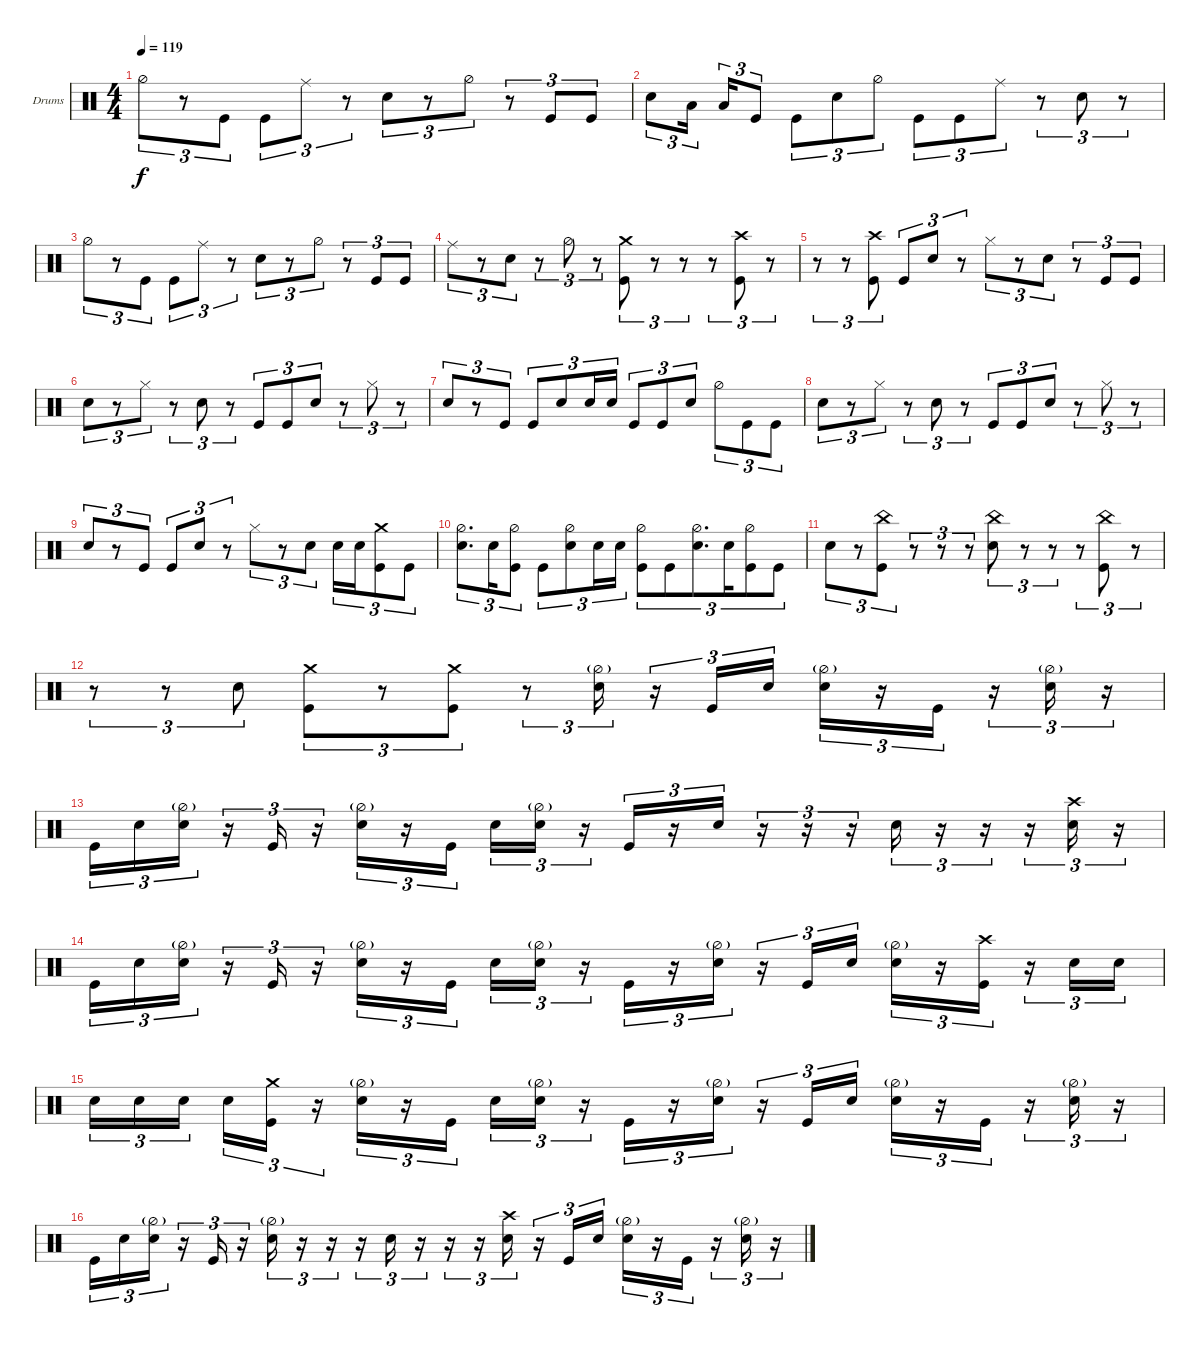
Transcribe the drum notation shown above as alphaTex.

\defaultSystemsLayout 4
\bracketExtendMode groupsimilarinstruments
\firstSystemTrackNameOrientation horizontal
\otherSystemsTrackNameOrientation horizontal
\track ("Drumkit" "Drums") {instrument percussion}
\staff {score}
\articulation defaults
\ts (4 4)
\tempo 119
\clef neutral
\ks c "Hi-Hat (half)".8{tu (3 2) dy f}
r.8{tu (3 2)} "Kick (hit)".8{tu (3 2)} "Kick (hit)".8{tu (3 2)} "Ride (middle)".8{tu (3 2)} r.8{tu (3 2)} "Snare (hit) 2".8{tu (3 2)} r.8{tu (3 2)} "Hi-Hat (half)".8{tu (3 2)} r.8{tu (3 2)} "Kick (hit)".8{tu (3 2)} "Kick (hit)".8{tu (3 2)} |
"Snare (hit) 2".8{tu (3 2)} "Low Tom (hit)".16{tu (3 2)} "Low Tom (hit)".16{tu (3 2)} "Kick (hit)".8{tu (3 2)} "Kick (hit)".8{tu (3 2)} "Snare (hit) 2".8{tu (3 2)} "Hi-Hat (half)".8{tu (3 2)} "Kick (hit)".8{tu (3 2)} "Kick (hit)".8{tu (3 2)} "Ride (middle)".8{tu (3 2)} r.8{tu (3 2)} "Snare (hit) 2".8{tu (3 2)} r.8{tu (3 2)} |
"Hi-Hat (half)".8{tu (3 2)} r.8{tu (3 2)} "Kick (hit)".8{tu (3 2)} "Kick (hit)".8{tu (3 2)} "Ride (middle)".8{tu (3 2)} r.8{tu (3 2)} "Snare (hit) 2".8{tu (3 2)} r.8{tu (3 2)} "Hi-Hat (half)".8{tu (3 2)} r.8{tu (3 2)} "Kick (hit)".8{tu (3 2)} "Kick (hit)".8{tu (3 2)} |
"Ride (middle)".8{tu (3 2)} r.8{tu (3 2)} "Snare (hit) 2".8{tu (3 2)} r.8{tu (3 2)} "Hi-Hat (half)".8{tu (3 2)} r.8{tu (3 2)} ("Kick (hit)" "Crash medium (hit)").8{tu (3 2)} r.8{tu (3 2)} r.8{tu (3 2)} r.8{tu (3 2)} ("Kick (hit)" "Crash high (hit)").8{tu (3 2)} r.8{tu (3 2)} |
r.8{tu (3 2)} r.8{tu (3 2)} ("Kick (hit)" "Crash high (hit)").8{tu (3 2)} "Kick (hit)".8{tu (3 2)} "Snare (hit) 2".8{tu (3 2)} r.8{tu (3 2)} "Hi-Hat (closed)".8{tu (3 2)} r.8{tu (3 2)} "Snare (hit) 2".8{tu (3 2)} r.8{tu (3 2)} "Kick (hit)".8{tu (3 2)} "Kick (hit)".8{tu (3 2)} |
"Snare (hit) 2".8{tu (3 2)} r.8{tu (3 2)} "Hi-Hat (closed)".8{tu (3 2)} r.8{tu (3 2)} "Snare (hit) 2".8{tu (3 2)} r.8{tu (3 2)} "Kick (hit)".8{tu (3 2)} "Kick (hit)".8{tu (3 2)} "Snare (hit) 2".8{tu (3 2)} r.8{tu (3 2)} "Hi-Hat (closed)".8{tu (3 2)} r.8{tu (3 2)} |
"Snare (hit) 2".8{tu (3 2)} r.8{tu (3 2)} "Kick (hit)".8{tu (3 2)} "Kick (hit)".8{tu (3 2)} "Snare (hit) 2".8{tu (3 2)} "Snare (hit) 2".16{tu (3 2)} "Snare (hit) 2".16{tu (3 2)} "Kick (hit)".8{tu (3 2)} "Kick (hit)".8{tu (3 2)} "Snare (hit) 2".8{tu (3 2)} "Hi-Hat (half)".8{tu (3 2)} "Kick (hit)".8{tu (3 2)} "Kick (hit)".8{tu (3 2)} |
"Snare (hit) 2".8{tu (3 2)} r.8{tu (3 2)} "Hi-Hat (closed)".8{tu (3 2)} r.8{tu (3 2)} "Snare (hit) 2".8{tu (3 2)} r.8{tu (3 2)} "Kick (hit)".8{tu (3 2)} "Kick (hit)".8{tu (3 2)} "Snare (hit) 2".8{tu (3 2)} r.8{tu (3 2)} "Hi-Hat (closed)".8{tu (3 2)} r.8{tu (3 2)} |
"Snare (hit) 2".8{tu (3 2)} r.8{tu (3 2)} "Kick (hit)".8{tu (3 2)} "Kick (hit)".8{tu (3 2)} "Snare (hit) 2".8{tu (3 2)} r.8{tu (3 2)} "Hi-Hat (closed)".8{tu (3 2)} r.8{tu (3 2)} "Snare (hit) 2".8{tu (3 2)} "Snare (hit) 2".16{tu (3 2)} "Snare (hit) 2".16{tu (3 2)} ("Kick (hit)" "Crash medium (hit)").8{tu (3 2)} "Kick (hit)".8{tu (3 2)} |
("Snare (hit) 2" "Hi-Hat (half)").8{d tu (3 2)} "Snare (hit) 2".16{tu (3 2)} ("Kick (hit)" "Hi-Hat (half)").8{tu (3 2)} "Kick (hit)".8{tu (3 2)} ("Snare (hit) 2" "Hi-Hat (half)").8{tu (3 2)} "Snare (hit) 2".16{tu (3 2)} "Snare (hit) 2".16{tu (3 2)} ("Kick (hit)" "Hi-Hat (half)").8{tu (3 2)} "Kick (hit)".8{tu (3 2)} ("Snare (hit) 2" "Hi-Hat (half)").8{d tu (3 2)} "Snare (hit) 2".16{tu (3 2)} ("Kick (hit)" "Hi-Hat (half)").8{tu (3 2)} "Kick (hit)".8{tu (3 2)} |
"Snare (hit) 2".8{tu (3 2)} r.8{tu (3 2)} ("Kick (hit)" "China (hit)").8{tu (3 2)} r.8{tu (3 2)} r.8{tu (3 2)} r.8{tu (3 2)} ("Snare (hit) 2" "China (hit)").8{tu (3 2)} r.8{tu (3 2)} r.8{tu (3 2)} r.8{tu (3 2)} ("Kick (hit)" "China (hit)").8{tu (3 2)} r.8{tu (3 2)} |
r.8{tu (3 2)} r.8{tu (3 2)} "Snare (hit) 2".8{tu (3 2)} ("Kick (hit)" "Crash medium (hit)").8{tu (3 2)} r.8{tu (3 2)} ("Kick (hit)" "Crash medium (hit)").8{tu (3 2)} r.8{tu (3 2)} ("Snare (hit) 2" "Hi-Hat (half)"{g}).16{tu (3 2)} r.16{tu (3 2)} "Kick (hit)".16{tu (3 2)} "Snare (hit) 2".16{tu (3 2)} ("Snare (hit) 2" "Hi-Hat (half)"{g}).16{tu (3 2)} r.16{tu (3 2)} "Kick (hit)".16{tu (3 2)} r.16{tu (3 2)} ("Snare (hit) 2" "Hi-Hat (half)"{g}).16{tu (3 2)} r.16{tu (3 2)} |
"Kick (hit)".16{tu (3 2)} "Snare (hit) 2".16{tu (3 2)} ("Snare (hit) 2" "Hi-Hat (half)"{g}).16{tu (3 2)} r.16{tu (3 2)} "Kick (hit)".16{tu (3 2)} r.16{tu (3 2)} ("Snare (hit) 2" "Hi-Hat (half)"{g}).16{tu (3 2)} r.16{tu (3 2)} "Kick (hit)".16{tu (3 2)} "Snare (hit) 2".16{tu (3 2)} ("Snare (hit) 2" "Hi-Hat (half)"{g}).16{tu (3 2)} r.16{tu (3 2)} "Kick (hit)".16{tu (3 2)} r.16{tu (3 2)} "Snare (hit) 2".16{tu (3 2)} r.16{tu (3 2)} r.16{tu (3 2)} r.16{tu (3 2)} "Snare (hit) 2".16{tu (3 2)} r.16{tu (3 2)} r.16{tu (3 2)} r.16{tu (3 2)} ("Snare (hit) 2" "Crash high (hit)").16{tu (3 2)} r.16{tu (3 2)} |
"Kick (hit)".16{tu (3 2)} "Snare (hit) 2".16{tu (3 2)} ("Snare (hit) 2" "Hi-Hat (half)"{g}).16{tu (3 2)} r.16{tu (3 2)} "Kick (hit)".16{tu (3 2)} r.16{tu (3 2)} ("Snare (hit) 2" "Hi-Hat (half)"{g}).16{tu (3 2)} r.16{tu (3 2)} "Kick (hit)".16{tu (3 2)} "Snare (hit) 2".16{tu (3 2)} ("Snare (hit) 2" "Hi-Hat (half)"{g}).16{tu (3 2)} r.16{tu (3 2)} "Kick (hit)".16{tu (3 2)} r.16{tu (3 2)} ("Snare (hit) 2" "Hi-Hat (half)"{g}).16{tu (3 2)} r.16{tu (3 2)} "Kick (hit)".16{tu (3 2)} "Snare (hit) 2".16{tu (3 2)} ("Snare (hit) 2" "Hi-Hat (half)"{g}).16{tu (3 2)} r.16{tu (3 2)} ("Kick (hit)" "Crash high (hit)").16{tu (3 2)} r.16{tu (3 2)} "Snare (hit) 2".16{tu (3 2)} "Snare (hit) 2".16{tu (3 2)} |
"Snare (hit) 2".16{tu (3 2)} "Snare (hit) 2".16{tu (3 2)} "Snare (hit) 2".16{tu (3 2)} "Snare (hit) 2".16{tu (3 2)} ("Kick (hit)" "Crash medium (hit)").16{tu (3 2)} r.16{tu (3 2)} ("Snare (hit) 2" "Hi-Hat (half)"{g}).16{tu (3 2)} r.16{tu (3 2)} "Kick (hit)".16{tu (3 2)} "Snare (hit) 2".16{tu (3 2)} ("Snare (hit) 2" "Hi-Hat (half)"{g}).16{tu (3 2)} r.16{tu (3 2)} "Kick (hit)".16{tu (3 2)} r.16{tu (3 2)} ("Snare (hit) 2" "Hi-Hat (half)"{g}).16{tu (3 2)} r.16{tu (3 2)} "Kick (hit)".16{tu (3 2)} "Snare (hit) 2".16{tu (3 2)} ("Snare (hit) 2" "Hi-Hat (half)"{g}).16{tu (3 2)} r.16{tu (3 2)} "Kick (hit)".16{tu (3 2)} r.16{tu (3 2)} ("Snare (hit) 2" "Hi-Hat (half)"{g}).16{tu (3 2)} r.16{tu (3 2)} |
"Kick (hit)".16{tu (3 2)} "Snare (hit) 2".16{tu (3 2)} ("Snare (hit) 2" "Hi-Hat (half)"{g}).16{tu (3 2)} r.16{tu (3 2)} "Kick (hit)".16{tu (3 2)} r.16{tu (3 2)} ("Snare (hit) 2" "Hi-Hat (half)"{g}).16{tu (3 2)} r.16{tu (3 2)} r.16{tu (3 2)} r.16{tu (3 2)} "Snare (hit) 2".16{tu (3 2)} r.16{tu (3 2)} r.16{tu (3 2)} r.16{tu (3 2)} ("Crash high (hit)" "Snare (hit) 2").16{tu (3 2)} r.16{tu (3 2)} "Kick (hit)".16{tu (3 2)} "Snare (hit) 2".16{tu (3 2)} ("Snare (hit) 2" "Hi-Hat (half)"{g}).16{tu (3 2)} r.16{tu (3 2)} "Kick (hit)".16{tu (3 2)} r.16{tu (3 2)} ("Snare (hit) 2" "Hi-Hat (half)"{g}).16{tu (3 2)} r.16{tu (3 2)}
